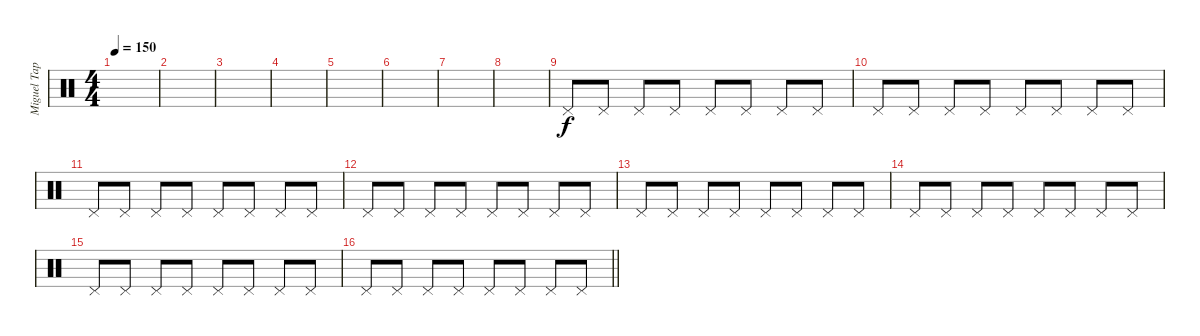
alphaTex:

\track ("Miguel Tapia" "Miguel Tap") {instrument percussion}
\staff {score}
\articulation defaults
\ts (4 4)
\tempo 150
\clef neutral
\ks c
|
|
|
|
|
|
|
|
"Pedal Hi-Hat (hit)".8 "Pedal Hi-Hat (hit)".8 "Pedal Hi-Hat (hit)".8 "Pedal Hi-Hat (hit)".8 "Pedal Hi-Hat (hit)".8 "Pedal Hi-Hat (hit)".8 "Pedal Hi-Hat (hit)".8 "Pedal Hi-Hat (hit)".8 |
"Pedal Hi-Hat (hit)".8 "Pedal Hi-Hat (hit)".8 "Pedal Hi-Hat (hit)".8 "Pedal Hi-Hat (hit)".8 "Pedal Hi-Hat (hit)".8 "Pedal Hi-Hat (hit)".8 "Pedal Hi-Hat (hit)".8 "Pedal Hi-Hat (hit)".8 |
"Pedal Hi-Hat (hit)".8 "Pedal Hi-Hat (hit)".8 "Pedal Hi-Hat (hit)".8 "Pedal Hi-Hat (hit)".8 "Pedal Hi-Hat (hit)".8 "Pedal Hi-Hat (hit)".8 "Pedal Hi-Hat (hit)".8 "Pedal Hi-Hat (hit)".8 |
"Pedal Hi-Hat (hit)".8 "Pedal Hi-Hat (hit)".8 "Pedal Hi-Hat (hit)".8 "Pedal Hi-Hat (hit)".8 "Pedal Hi-Hat (hit)".8 "Pedal Hi-Hat (hit)".8 "Pedal Hi-Hat (hit)".8 "Pedal Hi-Hat (hit)".8 |
"Pedal Hi-Hat (hit)".8 "Pedal Hi-Hat (hit)".8 "Pedal Hi-Hat (hit)".8 "Pedal Hi-Hat (hit)".8 "Pedal Hi-Hat (hit)".8 "Pedal Hi-Hat (hit)".8 "Pedal Hi-Hat (hit)".8 "Pedal Hi-Hat (hit)".8 |
"Pedal Hi-Hat (hit)".8 "Pedal Hi-Hat (hit)".8 "Pedal Hi-Hat (hit)".8 "Pedal Hi-Hat (hit)".8 "Pedal Hi-Hat (hit)".8 "Pedal Hi-Hat (hit)".8 "Pedal Hi-Hat (hit)".8 "Pedal Hi-Hat (hit)".8 |
"Pedal Hi-Hat (hit)".8 "Pedal Hi-Hat (hit)".8 "Pedal Hi-Hat (hit)".8 "Pedal Hi-Hat (hit)".8 "Pedal Hi-Hat (hit)".8 "Pedal Hi-Hat (hit)".8 "Pedal Hi-Hat (hit)".8 "Pedal Hi-Hat (hit)".8 |
\barLineRight lightlight "Pedal Hi-Hat (hit)".8 "Pedal Hi-Hat (hit)".8 "Pedal Hi-Hat (hit)".8 "Pedal Hi-Hat (hit)".8 "Pedal Hi-Hat (hit)".8 "Pedal Hi-Hat (hit)".8 "Pedal Hi-Hat (hit)".8 "Pedal Hi-Hat (hit)".8
